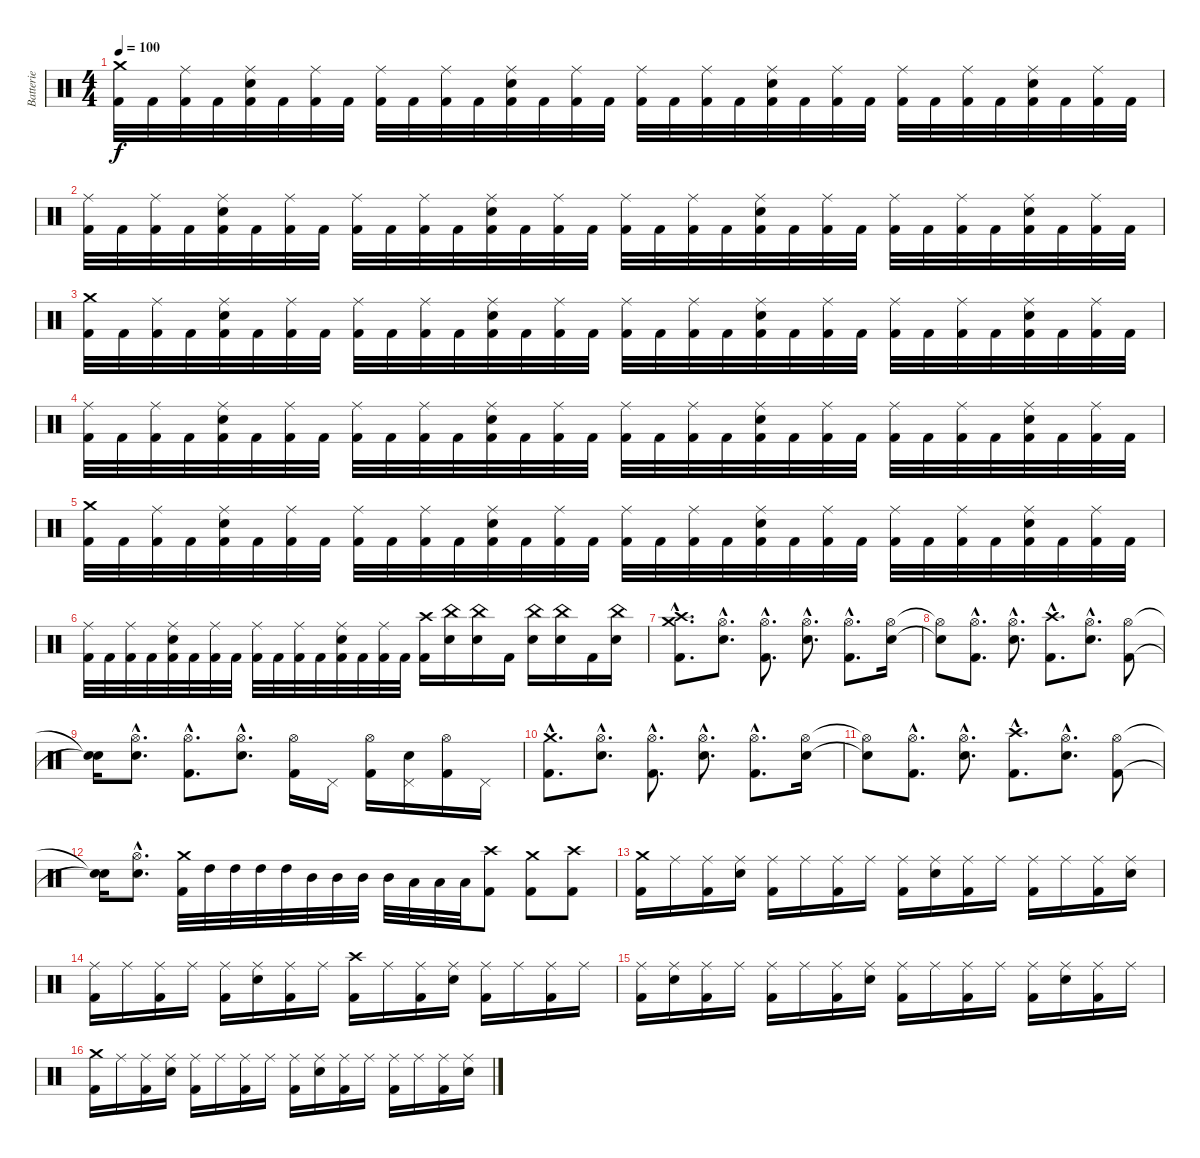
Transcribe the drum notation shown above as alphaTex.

\track ("Batterie" "Batterie") {instrument percussion}
\staff {score}
\articulation defaults
\ts (4 4)
\tempo 100
\clef neutral
\ks c
("Crash medium (hit)" "Kick (hit) 2").32{dy f} "Kick (hit) 2".32 ("Ride (middle)" "Kick (hit) 2").32 "Kick (hit) 2".32 ("Ride (middle)" "Electric Snare (hit)" "Kick (hit) 2").32 "Kick (hit) 2".32 ("Ride (middle)" "Kick (hit) 2").32 "Kick (hit) 2".32 ("Ride (middle)" "Kick (hit) 2").32 "Kick (hit) 2".32 ("Ride (middle)" "Kick (hit) 2").32 "Kick (hit) 2".32 ("Ride (middle)" "Electric Snare (hit)" "Kick (hit) 2").32 "Kick (hit) 2".32 ("Ride (middle)" "Kick (hit) 2").32 "Kick (hit) 2".32 ("Ride (middle)" "Kick (hit) 2").32 "Kick (hit) 2".32 ("Ride (middle)" "Kick (hit) 2").32 "Kick (hit) 2".32 ("Ride (middle)" "Electric Snare (hit)" "Kick (hit) 2").32 "Kick (hit) 2".32 ("Ride (middle)" "Kick (hit) 2").32 "Kick (hit) 2".32 ("Ride (middle)" "Kick (hit) 2").32 "Kick (hit) 2".32 ("Ride (middle)" "Kick (hit) 2").32 "Kick (hit) 2".32 ("Ride (middle)" "Electric Snare (hit)" "Kick (hit) 2").32 "Kick (hit) 2".32 ("Ride (middle)" "Kick (hit) 2").32 "Kick (hit) 2".32 |
("Ride (middle)" "Kick (hit) 2").32 "Kick (hit) 2".32 ("Ride (middle)" "Kick (hit) 2").32 "Kick (hit) 2".32 ("Ride (middle)" "Electric Snare (hit)" "Kick (hit) 2").32 "Kick (hit) 2".32 ("Ride (middle)" "Kick (hit) 2").32 "Kick (hit) 2".32 ("Ride (middle)" "Kick (hit) 2").32 "Kick (hit) 2".32 ("Ride (middle)" "Kick (hit) 2").32 "Kick (hit) 2".32 ("Ride (middle)" "Electric Snare (hit)" "Kick (hit) 2").32 "Kick (hit) 2".32 ("Ride (middle)" "Kick (hit) 2").32 "Kick (hit) 2".32 ("Ride (middle)" "Kick (hit) 2").32 "Kick (hit) 2".32 ("Ride (middle)" "Kick (hit) 2").32 "Kick (hit) 2".32 ("Ride (middle)" "Electric Snare (hit)" "Kick (hit) 2").32 "Kick (hit) 2".32 ("Ride (middle)" "Kick (hit) 2").32 "Kick (hit) 2".32 ("Ride (middle)" "Kick (hit) 2").32 "Kick (hit) 2".32 ("Ride (middle)" "Kick (hit) 2").32 "Kick (hit) 2".32 ("Ride (middle)" "Electric Snare (hit)" "Kick (hit) 2").32 "Kick (hit) 2".32 ("Ride (middle)" "Kick (hit) 2").32 "Kick (hit) 2".32 |
("Crash medium (hit)" "Kick (hit) 2").32 "Kick (hit) 2".32 ("Ride (middle)" "Kick (hit) 2").32 "Kick (hit) 2".32 ("Ride (middle)" "Electric Snare (hit)" "Kick (hit) 2").32 "Kick (hit) 2".32 ("Ride (middle)" "Kick (hit) 2").32 "Kick (hit) 2".32 ("Ride (middle)" "Kick (hit) 2").32 "Kick (hit) 2".32 ("Ride (middle)" "Kick (hit) 2").32 "Kick (hit) 2".32 ("Ride (middle)" "Electric Snare (hit)" "Kick (hit) 2").32 "Kick (hit) 2".32 ("Ride (middle)" "Kick (hit) 2").32 "Kick (hit) 2".32 ("Ride (middle)" "Kick (hit) 2").32 "Kick (hit) 2".32 ("Ride (middle)" "Kick (hit) 2").32 "Kick (hit) 2".32 ("Ride (middle)" "Electric Snare (hit)" "Kick (hit) 2").32 "Kick (hit) 2".32 ("Ride (middle)" "Kick (hit) 2").32 "Kick (hit) 2".32 ("Ride (middle)" "Kick (hit) 2").32 "Kick (hit) 2".32 ("Ride (middle)" "Kick (hit) 2").32 "Kick (hit) 2".32 ("Ride (middle)" "Electric Snare (hit)" "Kick (hit) 2").32 "Kick (hit) 2".32 ("Ride (middle)" "Kick (hit) 2").32 "Kick (hit) 2".32 |
("Ride (middle)" "Kick (hit) 2").32 "Kick (hit) 2".32 ("Ride (middle)" "Kick (hit) 2").32 "Kick (hit) 2".32 ("Ride (middle)" "Electric Snare (hit)" "Kick (hit) 2").32 "Kick (hit) 2".32 ("Ride (middle)" "Kick (hit) 2").32 "Kick (hit) 2".32 ("Ride (middle)" "Kick (hit) 2").32 "Kick (hit) 2".32 ("Ride (middle)" "Kick (hit) 2").32 "Kick (hit) 2".32 ("Ride (middle)" "Electric Snare (hit)" "Kick (hit) 2").32 "Kick (hit) 2".32 ("Ride (middle)" "Kick (hit) 2").32 "Kick (hit) 2".32 ("Ride (middle)" "Kick (hit) 2").32 "Kick (hit) 2".32 ("Ride (middle)" "Kick (hit) 2").32 "Kick (hit) 2".32 ("Ride (middle)" "Electric Snare (hit)" "Kick (hit) 2").32 "Kick (hit) 2".32 ("Ride (middle)" "Kick (hit) 2").32 "Kick (hit) 2".32 ("Ride (middle)" "Kick (hit) 2").32 "Kick (hit) 2".32 ("Ride (middle)" "Kick (hit) 2").32 "Kick (hit) 2".32 ("Ride (middle)" "Electric Snare (hit)" "Kick (hit) 2").32 "Kick (hit) 2".32 ("Ride (middle)" "Kick (hit) 2").32 "Kick (hit) 2".32 |
("Crash medium (hit)" "Kick (hit) 2").32 "Kick (hit) 2".32 ("Ride (middle)" "Kick (hit) 2").32 "Kick (hit) 2".32 ("Ride (middle)" "Electric Snare (hit)" "Kick (hit) 2").32 "Kick (hit) 2".32 ("Ride (middle)" "Kick (hit) 2").32 "Kick (hit) 2".32 ("Ride (middle)" "Kick (hit) 2").32 "Kick (hit) 2".32 ("Ride (middle)" "Kick (hit) 2").32 "Kick (hit) 2".32 ("Ride (middle)" "Electric Snare (hit)" "Kick (hit) 2").32 "Kick (hit) 2".32 ("Ride (middle)" "Kick (hit) 2").32 "Kick (hit) 2".32 ("Ride (middle)" "Kick (hit) 2").32 "Kick (hit) 2".32 ("Ride (middle)" "Kick (hit) 2").32 "Kick (hit) 2".32 ("Ride (middle)" "Electric Snare (hit)" "Kick (hit) 2").32 "Kick (hit) 2".32 ("Ride (middle)" "Kick (hit) 2").32 "Kick (hit) 2".32 ("Ride (middle)" "Kick (hit) 2").32 "Kick (hit) 2".32 ("Ride (middle)" "Kick (hit) 2").32 "Kick (hit) 2".32 ("Ride (middle)" "Electric Snare (hit)" "Kick (hit) 2").32 "Kick (hit) 2".32 ("Ride (middle)" "Kick (hit) 2").32 "Kick (hit) 2".32 |
("Ride (middle)" "Kick (hit) 2").32 "Kick (hit) 2".32 ("Ride (middle)" "Kick (hit) 2").32 "Kick (hit) 2".32 ("Ride (middle)" "Electric Snare (hit)" "Kick (hit) 2").32 "Kick (hit) 2".32 ("Ride (middle)" "Kick (hit) 2").32 "Kick (hit) 2".32 ("Ride (middle)" "Kick (hit) 2").32 "Kick (hit) 2".32 ("Ride (middle)" "Kick (hit) 2").32 "Kick (hit) 2".32 ("Ride (middle)" "Electric Snare (hit)" "Kick (hit) 2").32 "Kick (hit) 2".32 ("Ride (middle)" "Kick (hit) 2").32 "Kick (hit) 2".32 ("Crash high (hit)" "Kick (hit) 2").16 ("China (hit)" "Electric Snare (hit)").16 ("China (hit)" "Electric Snare (hit)").16 "Kick (hit) 2".16 ("China (hit)" "Electric Snare (hit)").16 ("China (hit)" "Electric Snare (hit)").16 "Kick (hit) 2".16 ("China (hit)" "Electric Snare (hit)").16 |
("Crash high (hit)"{hac} "Crash medium (hit)"{hac} "Kick (hit) 2"{hac}).8{d} ("Hi-Hat (open)"{hac} "Electric Snare (hit)"{hac}).8{d} ("Hi-Hat (open)"{hac} "Kick (hit) 2"{hac}).8{d} ("Hi-Hat (open)"{hac} "Electric Snare (hit)"{hac}).8{d} ("Hi-Hat (open)"{hac} "Kick (hit) 2"{hac}).8{d} ("Hi-Hat (open)" "Electric Snare (hit)").16 |
("Hi-Hat (open)"{t} "Snare (hit)"{t}).8 ("Hi-Hat (open)"{hac} "Kick (hit) 2"{hac}).8{d} ("Hi-Hat (open)"{hac} "Electric Snare (hit)"{hac}).8{d} ("Crash high (hit)"{hac} "Kick (hit) 2"{hac}).8{d} ("Hi-Hat (open)"{hac} "Electric Snare (hit)"{hac}).8{d} ("Hi-Hat (open)" "Kick (hit) 2").8 |
("Snare (hit)"{t} "Snare (hit)"{t}).16 ("Hi-Hat (open)"{hac} "Electric Snare (hit)"{hac}).8{d} ("Hi-Hat (open)"{hac} "Kick (hit) 2"{hac}).8{d} ("Hi-Hat (open)"{hac} "Electric Snare (hit)"{hac}).8{d} ("Hi-Hat (open)" "Kick (hit) 2").16 "Pedal Hi-Hat (hit)".16 ("Hi-Hat (open)" "Kick (hit) 2").16 ("Pedal Hi-Hat (hit)" "Electric Snare (hit)").16 ("Hi-Hat (open)" "Kick (hit) 2").16 "Pedal Hi-Hat (hit)".16 |
("Crash medium (hit)"{hac} "Kick (hit) 2"{hac}).8{d} ("Hi-Hat (open)"{hac} "Electric Snare (hit)"{hac}).8{d} ("Hi-Hat (open)"{hac} "Kick (hit) 2"{hac}).8{d} ("Hi-Hat (open)"{hac} "Electric Snare (hit)"{hac}).8{d} ("Hi-Hat (open)"{hac} "Kick (hit) 2"{hac}).8{d} ("Hi-Hat (open)" "Electric Snare (hit)").16 |
("Hi-Hat (open)"{t} "Snare (hit)"{t}).8 ("Hi-Hat (open)"{hac} "Kick (hit) 2"{hac}).8{d} ("Hi-Hat (open)"{hac} "Electric Snare (hit)"{hac}).8{d} ("Crash high (hit)"{hac} "Kick (hit) 2"{hac}).8{d} ("Hi-Hat (open)"{hac} "Electric Snare (hit)"{hac}).8{d} ("Hi-Hat (open)" "Kick (hit) 2").8 |
("Snare (hit)"{t} "Snare (hit)"{t}).16 ("Hi-Hat (open)"{hac} "Electric Snare (hit)"{hac}).8{d} ("Crash medium (hit)" "Kick (hit) 2").32 "High Tom (hit)".32 "High Tom (hit)".32 "High Tom (hit)".32 "High Tom (hit)".32 "Mid Tom (hit)".32 "Mid Tom (hit)".32 "Mid Tom (hit)".32 "Mid Tom (hit)".32 "Low Tom (hit)".32 "Low Tom (hit)".32 "Low Tom (hit)".32 ("Crash high (hit)" "Kick (hit) 2").8 ("Crash medium (hit)" "Kick (hit) 2").8 ("Crash high (hit)" "Kick (hit) 2").8 |
("Crash medium (hit)" "Kick (hit) 2").16 "Ride (middle)".16 ("Ride (middle)" "Kick (hit) 2").16 ("Ride (middle)" "Electric Snare (hit)").16 ("Ride (middle)" "Kick (hit) 2").16 "Ride (middle)".16 ("Ride (middle)" "Kick (hit) 2").16 "Ride (middle)".16 ("Ride (middle)" "Kick (hit) 2").16 ("Ride (middle)" "Electric Snare (hit)").16 ("Ride (middle)" "Kick (hit) 2").16 "Ride (middle)".16 ("Ride (middle)" "Kick (hit) 2").16 "Ride (middle)".16 ("Ride (middle)" "Kick (hit) 2").16 ("Ride (middle)" "Electric Snare (hit)").16 |
("Ride (middle)" "Kick (hit) 2").16 "Ride (middle)".16 ("Ride (middle)" "Kick (hit) 2").16 "Ride (middle)".16 ("Ride (middle)" "Kick (hit) 2").16 ("Ride (middle)" "Electric Snare (hit)").16 ("Ride (middle)" "Kick (hit) 2").16 "Ride (middle)".16 ("Crash high (hit)" "Kick (hit) 2").16 "Ride (middle)".16 ("Ride (middle)" "Kick (hit) 2").16 ("Ride (middle)" "Electric Snare (hit)").16 ("Ride (middle)" "Kick (hit) 2").16 "Ride (middle)".16 ("Ride (middle)" "Kick (hit) 2").16 "Ride (middle)".16 |
("Ride (middle)" "Kick (hit) 2").16 ("Ride (middle)" "Electric Snare (hit)").16 ("Ride (middle)" "Kick (hit) 2").16 "Ride (middle)".16 ("Ride (middle)" "Kick (hit) 2").16 "Ride (middle)".16 ("Ride (middle)" "Kick (hit) 2").16 ("Ride (middle)" "Electric Snare (hit)").16 ("Ride (middle)" "Kick (hit) 2").16 "Ride (middle)".16 ("Ride (middle)" "Kick (hit) 2").16 "Ride (middle)".16 ("Ride (middle)" "Kick (hit) 2").16 ("Ride (middle)" "Electric Snare (hit)").16 ("Ride (middle)" "Kick (hit) 2").16 "Ride (middle)".16 |
("Crash medium (hit)" "Kick (hit) 2").16 "Ride (middle)".16 ("Ride (middle)" "Kick (hit) 2").16 ("Ride (middle)" "Electric Snare (hit)").16 ("Ride (middle)" "Kick (hit) 2").16 "Ride (middle)".16 ("Ride (middle)" "Kick (hit) 2").16 "Ride (middle)".16 ("Ride (middle)" "Kick (hit) 2").16 ("Ride (middle)" "Electric Snare (hit)").16 ("Ride (middle)" "Kick (hit) 2").16 "Ride (middle)".16 ("Ride (middle)" "Kick (hit) 2").16 "Ride (middle)".16 ("Ride (middle)" "Kick (hit) 2").16 ("Ride (middle)" "Electric Snare (hit)").16
